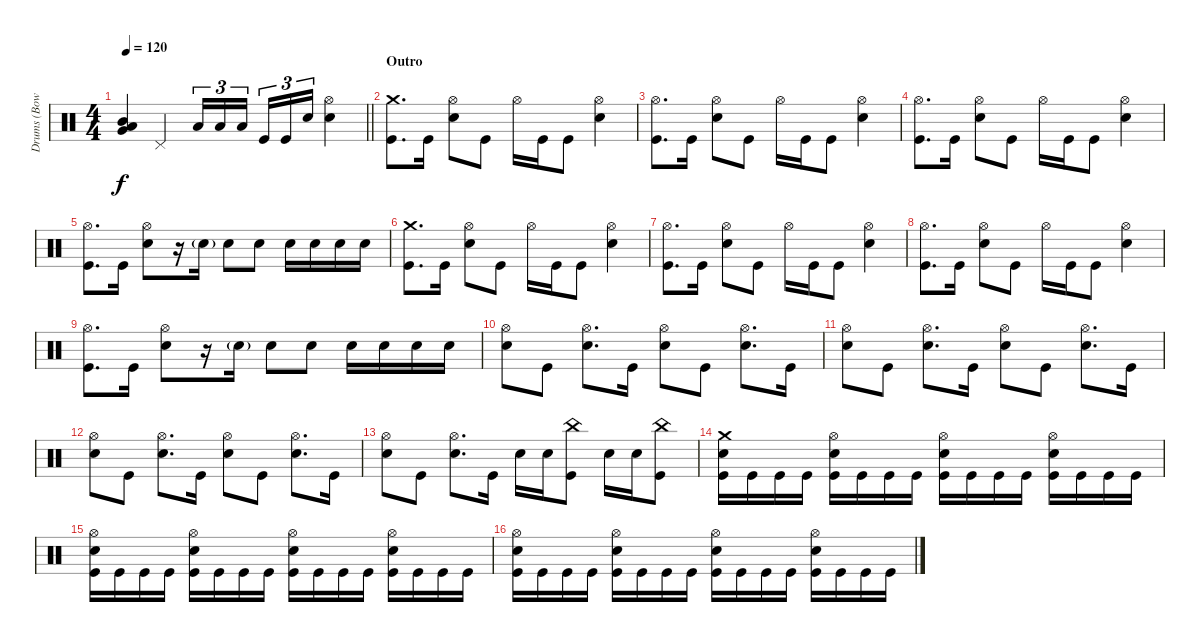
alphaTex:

\track ("Drums (Bowders)" "Drums (Bow") {instrument percussion}
\staff {score}
\articulation defaults
\ts (4 4)
\tempo 120
\clef neutral
\barLineRight lightlight
\ks c
("Very Low Tom (hit)" "Low Floor Tom (hit)" "Mid Tom (hit)").4{dy f} "Pedal Hi-Hat (hit)".4 "Low Floor Tom (hit)".16{tu (3 2)} "Low Floor Tom (hit)".16{tu (3 2)} "Low Floor Tom (hit)".16{tu (3 2)} "Kick (hit)".16{tu (3 2)} "Kick (hit)".16{tu (3 2)} "Snare (hit) 2".16{tu (3 2)} ("Snare (hit) 2" "Hi-Hat (open)").4 |
\section ("" "Outro")
("Kick (hit)" "Crash medium (hit)").8{d} "Kick (hit)".16 ("Snare (hit) 2" "Hi-Hat (open)").8 "Kick (hit)".8 "Hi-Hat (open)".16 "Kick (hit)".16 "Kick (hit)".8 ("Snare (hit) 2" "Hi-Hat (open)").4 |
("Kick (hit)" "Hi-Hat (open)").8{d} "Kick (hit)".16 ("Snare (hit) 2" "Hi-Hat (open)").8 "Kick (hit)".8 "Hi-Hat (open)".16 "Kick (hit)".16 "Kick (hit)".8 ("Snare (hit) 2" "Hi-Hat (open)").4 |
("Kick (hit)" "Hi-Hat (open)").8{d} "Kick (hit)".16 ("Snare (hit) 2" "Hi-Hat (open)").8 "Kick (hit)".8 "Hi-Hat (open)".16 "Kick (hit)".16 "Kick (hit)".8 ("Snare (hit) 2" "Hi-Hat (open)").4 |
("Kick (hit)" "Hi-Hat (open)").8{d} "Kick (hit)".16 ("Snare (hit) 2" "Hi-Hat (open)").8 r.16 "Snare (hit) 2"{g}.16 "Snare (hit) 2".8 "Snare (hit) 2".8 "Snare (hit) 2".16 "Snare (hit) 2".16 "Snare (hit) 2".16 "Snare (hit) 2".16 |
("Kick (hit)" "Crash medium (hit)").8{d} "Kick (hit)".16 ("Snare (hit) 2" "Hi-Hat (open)").8 "Kick (hit)".8 "Hi-Hat (open)".16 "Kick (hit)".16 "Kick (hit)".8 ("Snare (hit) 2" "Hi-Hat (open)").4 |
("Kick (hit)" "Hi-Hat (open)").8{d} "Kick (hit)".16 ("Snare (hit) 2" "Hi-Hat (open)").8 "Kick (hit)".8 "Hi-Hat (open)".16 "Kick (hit)".16 "Kick (hit)".8 ("Snare (hit) 2" "Hi-Hat (open)").4 |
("Kick (hit)" "Hi-Hat (open)").8{d} "Kick (hit)".16 ("Snare (hit) 2" "Hi-Hat (open)").8 "Kick (hit)".8 "Hi-Hat (open)".16 "Kick (hit)".16 "Kick (hit)".8 ("Snare (hit) 2" "Hi-Hat (open)").4 |
("Kick (hit)" "Hi-Hat (open)").8{d} "Kick (hit)".16 ("Snare (hit) 2" "Hi-Hat (open)").8 r.16 "Snare (hit) 2"{g}.16 "Snare (hit) 2".8 "Snare (hit) 2".8 "Snare (hit) 2".16 "Snare (hit) 2".16 "Snare (hit) 2".16 "Snare (hit) 2".16 |
("Hi-Hat (open)" "Snare (hit) 2").8 "Kick (hit)".8 ("Snare (hit) 2" "Hi-Hat (open)").8{d} "Kick (hit)".16 ("Hi-Hat (open)" "Snare (hit) 2").8 "Kick (hit)".8 ("Snare (hit) 2" "Hi-Hat (open)").8{d} "Kick (hit)".16 |
("Hi-Hat (open)" "Snare (hit) 2").8 "Kick (hit)".8 ("Snare (hit) 2" "Hi-Hat (open)").8{d} "Kick (hit)".16 ("Hi-Hat (open)" "Snare (hit) 2").8 "Kick (hit)".8 ("Snare (hit) 2" "Hi-Hat (open)").8{d} "Kick (hit)".16 |
("Hi-Hat (open)" "Snare (hit) 2").8 "Kick (hit)".8 ("Snare (hit) 2" "Hi-Hat (open)").8{d} "Kick (hit)".16 ("Hi-Hat (open)" "Snare (hit) 2").8 "Kick (hit)".8 ("Snare (hit) 2" "Hi-Hat (open)").8{d} "Kick (hit)".16 |
("Hi-Hat (open)" "Snare (hit) 2").8 "Kick (hit)".8 ("Snare (hit) 2" "Hi-Hat (open)").8{d} "Kick (hit)".16 "Snare (hit) 2".16 "Snare (hit) 2".16 ("Kick (hit)" "China (hit)").8 "Snare (hit) 2".16 "Snare (hit) 2".16 ("Kick (hit)" "China (hit)").8 |
("Kick (hit)" "Snare (hit) 2" "Crash medium (hit)").16 "Kick (hit)".16 "Kick (hit)".16 "Kick (hit)".16 ("Kick (hit)" "Snare (hit) 2" "Hi-Hat (open)").16 "Kick (hit)".16 "Kick (hit)".16 "Kick (hit)".16 ("Kick (hit)" "Snare (hit) 2" "Hi-Hat (open)").16 "Kick (hit)".16 "Kick (hit)".16 "Kick (hit)".16 ("Kick (hit)" "Snare (hit) 2" "Hi-Hat (open)").16 "Kick (hit)".16 "Kick (hit)".16 "Kick (hit)".16 |
("Kick (hit)" "Snare (hit) 2" "Hi-Hat (open)").16 "Kick (hit)".16 "Kick (hit)".16 "Kick (hit)".16 ("Kick (hit)" "Snare (hit) 2" "Hi-Hat (open)").16 "Kick (hit)".16 "Kick (hit)".16 "Kick (hit)".16 ("Kick (hit)" "Snare (hit) 2" "Hi-Hat (open)").16 "Kick (hit)".16 "Kick (hit)".16 "Kick (hit)".16 ("Kick (hit)" "Snare (hit) 2" "Hi-Hat (open)").16 "Kick (hit)".16 "Kick (hit)".16 "Kick (hit)".16 |
("Kick (hit)" "Snare (hit) 2" "Hi-Hat (open)").16 "Kick (hit)".16 "Kick (hit)".16 "Kick (hit)".16 ("Kick (hit)" "Snare (hit) 2" "Hi-Hat (open)").16 "Kick (hit)".16 "Kick (hit)".16 "Kick (hit)".16 ("Kick (hit)" "Snare (hit) 2" "Hi-Hat (open)").16 "Kick (hit)".16 "Kick (hit)".16 "Kick (hit)".16 ("Kick (hit)" "Snare (hit) 2" "Hi-Hat (open)").16 "Kick (hit)".16 "Kick (hit)".16 "Kick (hit)".16
